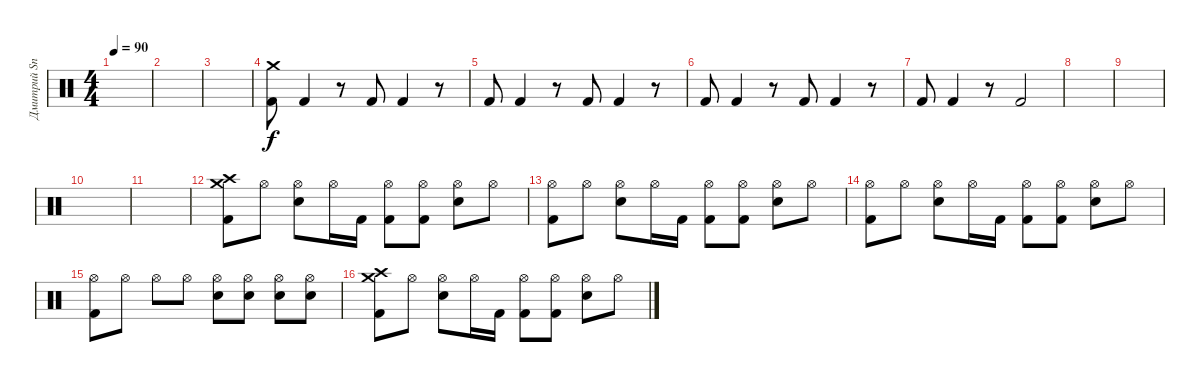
\track ("Дмитрий Snake Хакимов" "Дмитрий Sn") {instrument percussion}
\staff {score}
\articulation defaults
\ts (4 4)
\tempo 90
\clef neutral
\ks c
|
|
|
("Crash medium (hit)" "Kick (hit) 2").8 "Kick (hit) 2".4 r.8 "Kick (hit) 2".8 "Kick (hit) 2".4 r.8 |
"Kick (hit) 2".8 "Kick (hit) 2".4 r.8 "Kick (hit) 2".8 "Kick (hit) 2".4 r.8 |
"Kick (hit) 2".8 "Kick (hit) 2".4 r.8 "Kick (hit) 2".8 "Kick (hit) 2".4 r.8 |
"Kick (hit) 2".8 "Kick (hit) 2".4 r.8 "Kick (hit) 2".2 |
|
|
|
|
("Crash high (hit)" "Crash medium (hit)" "Kick (hit) 2").8 "Hi-Hat (open)".8 ("Hi-Hat (open)" "Electric Snare (hit)").8 "Hi-Hat (open)".16 "Kick (hit) 2".16 ("Hi-Hat (open)" "Kick (hit) 2").8 ("Hi-Hat (open)" "Kick (hit) 2").8 ("Hi-Hat (open)" "Electric Snare (hit)").8 "Hi-Hat (open)".8 |
("Hi-Hat (open)" "Kick (hit) 2").8 "Hi-Hat (open)".8 ("Hi-Hat (open)" "Electric Snare (hit)").8 "Hi-Hat (open)".16 "Kick (hit) 2".16 ("Hi-Hat (open)" "Kick (hit) 2").8 ("Hi-Hat (open)" "Kick (hit) 2").8 ("Hi-Hat (open)" "Electric Snare (hit)").8 "Hi-Hat (open)".8 |
("Hi-Hat (open)" "Kick (hit) 2").8 "Hi-Hat (open)".8 ("Hi-Hat (open)" "Electric Snare (hit)").8 "Hi-Hat (open)".16 "Kick (hit) 2".16 ("Hi-Hat (open)" "Kick (hit) 2").8 ("Hi-Hat (open)" "Kick (hit) 2").8 ("Hi-Hat (open)" "Electric Snare (hit)").8 "Hi-Hat (open)".8 |
("Hi-Hat (open)" "Kick (hit) 2").8 "Hi-Hat (open)".8 "Hi-Hat (open)".8 "Hi-Hat (open)".8 ("Hi-Hat (open)" "Electric Snare (hit)").8 ("Hi-Hat (open)" "Electric Snare (hit)").8 ("Hi-Hat (open)" "Electric Snare (hit)").8 ("Hi-Hat (open)" "Electric Snare (hit)").8 |
("Crash high (hit)" "Crash medium (hit)" "Kick (hit) 2").8 "Hi-Hat (open)".8 ("Hi-Hat (open)" "Electric Snare (hit)").8 "Hi-Hat (open)".16 "Kick (hit) 2".16 ("Hi-Hat (open)" "Kick (hit) 2").8 ("Hi-Hat (open)" "Kick (hit) 2").8 ("Hi-Hat (open)" "Electric Snare (hit)").8 "Hi-Hat (open)".8
